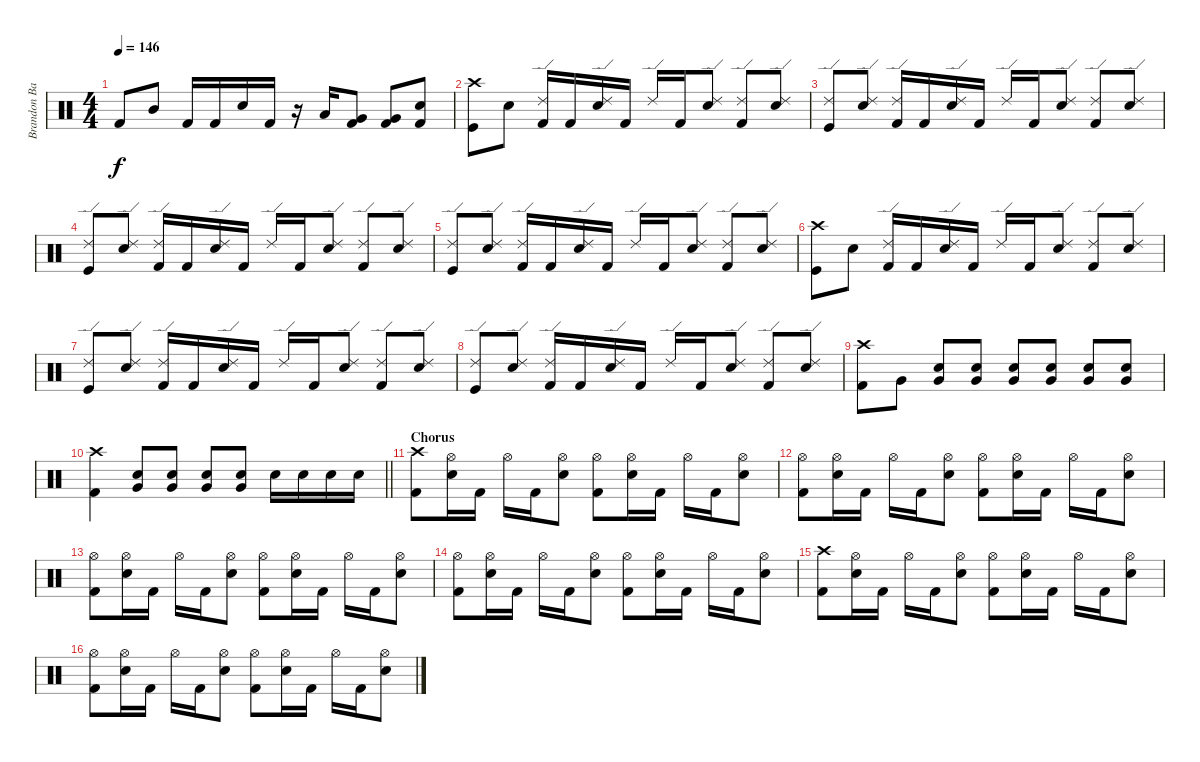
\track ("Brandon Barnes - Drums" "Brandon Ba") {instrument percussion}
\staff {score}
\articulation defaults
\ts (4 4)
\tempo 146
\clef neutral
\ks c "Kick (hit) 2".8{dy f} "Mid Tom (hit)".8 "Kick (hit) 2".16 "Kick (hit) 2".16 "Snare (hit) 2".16 "Kick (hit) 2".16
r.16 "Low Tom (hit)".16 ("Kick (hit) 2" "Very Low Tom (hit)").8 ("Kick (hit) 2" "Very Low Tom (hit)").8 ("Kick (hit) 2" "Snare (hit) 2").8 |
("Crash high (hit)" "Kick (hit)").8 "Snare (hit) 2".8 ("Kick (hit) 2" "Ride (edge) 2").16 "Kick (hit) 2".16 ("Snare (hit) 2" "Ride (edge) 2").16 "Kick (hit) 2".16 "Ride (edge) 2".16 "Kick (hit) 2".16 ("Snare (hit) 2" "Ride (edge) 2").8 ("Kick (hit) 2" "Ride (edge) 2").8 ("Snare (hit) 2" "Ride (edge) 2").8 |
("Ride (edge) 2" "Kick (hit)").8 ("Ride (edge) 2" "Snare (hit) 2").8 ("Kick (hit) 2" "Ride (edge) 2").16 "Kick (hit) 2".16 ("Snare (hit) 2" "Ride (edge) 2").16 "Kick (hit) 2".16 "Ride (edge) 2".16 "Kick (hit) 2".16 ("Snare (hit) 2" "Ride (edge) 2").8 ("Kick (hit) 2" "Ride (edge) 2").8 ("Snare (hit) 2" "Ride (edge) 2").8 |
("Ride (edge) 2" "Kick (hit)").8 ("Ride (edge) 2" "Snare (hit) 2").8 ("Kick (hit) 2" "Ride (edge) 2").16 "Kick (hit) 2".16 ("Snare (hit) 2" "Ride (edge) 2").16 "Kick (hit) 2".16 "Ride (edge) 2".16 "Kick (hit) 2".16 ("Snare (hit) 2" "Ride (edge) 2").8 ("Kick (hit) 2" "Ride (edge) 2").8 ("Snare (hit) 2" "Ride (edge) 2").8 |
("Ride (edge) 2" "Kick (hit)").8 ("Ride (edge) 2" "Snare (hit) 2").8 ("Kick (hit) 2" "Ride (edge) 2").16 "Kick (hit) 2".16 ("Snare (hit) 2" "Ride (edge) 2").16 "Kick (hit) 2".16 "Ride (edge) 2".16 "Kick (hit) 2".16 ("Snare (hit) 2" "Ride (edge) 2").8 ("Kick (hit) 2" "Ride (edge) 2").8 ("Snare (hit) 2" "Ride (edge) 2").8 |
("Crash high (hit)" "Kick (hit)").8 "Snare (hit) 2".8 ("Kick (hit) 2" "Ride (edge) 2").16 "Kick (hit) 2".16 ("Snare (hit) 2" "Ride (edge) 2").16 "Kick (hit) 2".16 "Ride (edge) 2".16 "Kick (hit) 2".16 ("Snare (hit) 2" "Ride (edge) 2").8 ("Kick (hit) 2" "Ride (edge) 2").8 ("Snare (hit) 2" "Ride (edge) 2").8 |
("Ride (edge) 2" "Kick (hit)").8 ("Ride (edge) 2" "Snare (hit) 2").8 ("Kick (hit) 2" "Ride (edge) 2").16 "Kick (hit) 2".16 ("Snare (hit) 2" "Ride (edge) 2").16 "Kick (hit) 2".16 "Ride (edge) 2".16 "Kick (hit) 2".16 ("Snare (hit) 2" "Ride (edge) 2").8 ("Kick (hit) 2" "Ride (edge) 2").8 ("Snare (hit) 2" "Ride (edge) 2").8 |
("Ride (edge) 2" "Kick (hit)").8 ("Ride (edge) 2" "Snare (hit) 2").8 ("Kick (hit) 2" "Ride (edge) 2").16 "Kick (hit) 2".16 ("Snare (hit) 2" "Ride (edge) 2").16 "Kick (hit) 2".16 "Ride (edge) 2".16 "Kick (hit) 2".16 ("Snare (hit) 2" "Ride (edge) 2").8 ("Kick (hit) 2" "Ride (edge) 2").8 ("Snare (hit) 2" "Ride (edge) 2").8 |
("Crash high (hit)" "Kick (hit) 2").8 "Very Low Tom (hit)".8 ("Very Low Tom (hit)" "Snare (hit) 2").8 ("Snare (hit) 2" "Very Low Tom (hit)").8 ("Snare (hit) 2" "Very Low Tom (hit)").8 ("Snare (hit) 2" "Very Low Tom (hit)").8 ("Snare (hit) 2" "Very Low Tom (hit)").8 ("Snare (hit) 2" "Very Low Tom (hit)").8 |
\barLineRight lightlight
("Crash high (hit)" "Kick (hit) 2").4 ("Very Low Tom (hit)" "Snare (hit) 2").8 ("Snare (hit) 2" "Very Low Tom (hit)").8 ("Snare (hit) 2" "Very Low Tom (hit)").8 ("Snare (hit) 2" "Very Low Tom (hit)").8 "Snare (hit) 2".16 "Snare (hit) 2".16 "Snare (hit) 2".16 "Snare (hit) 2".16 |
\section ("" "Chorus")
("Crash high (hit)" "Kick (hit) 2").8 ("Snare (hit) 2" "Hi-Hat (open)").16 "Kick (hit) 2".16 "Hi-Hat (open)".16 "Kick (hit) 2".16 ("Snare (hit) 2" "Hi-Hat (open)").8 ("Hi-Hat (open)" "Kick (hit) 2").8 ("Snare (hit) 2" "Hi-Hat (open)").16 "Kick (hit) 2".16 "Hi-Hat (open)".16 "Kick (hit) 2".16 ("Snare (hit) 2" "Hi-Hat (open)").8 |
("Hi-Hat (open)" "Kick (hit) 2").8 ("Snare (hit) 2" "Hi-Hat (open)").16 "Kick (hit) 2".16 "Hi-Hat (open)".16 "Kick (hit) 2".16 ("Snare (hit) 2" "Hi-Hat (open)").8 ("Hi-Hat (open)" "Kick (hit) 2").8 ("Snare (hit) 2" "Hi-Hat (open)").16 "Kick (hit) 2".16 "Hi-Hat (open)".16 "Kick (hit) 2".16 ("Snare (hit) 2" "Hi-Hat (open)").8 |
("Hi-Hat (open)" "Kick (hit) 2").8 ("Snare (hit) 2" "Hi-Hat (open)").16 "Kick (hit) 2".16 "Hi-Hat (open)".16 "Kick (hit) 2".16 ("Snare (hit) 2" "Hi-Hat (open)").8 ("Hi-Hat (open)" "Kick (hit) 2").8 ("Snare (hit) 2" "Hi-Hat (open)").16 "Kick (hit) 2".16 "Hi-Hat (open)".16 "Kick (hit) 2".16 ("Snare (hit) 2" "Hi-Hat (open)").8 |
("Hi-Hat (open)" "Kick (hit) 2").8 ("Snare (hit) 2" "Hi-Hat (open)").16 "Kick (hit) 2".16 "Hi-Hat (open)".16 "Kick (hit) 2".16 ("Snare (hit) 2" "Hi-Hat (open)").8 ("Hi-Hat (open)" "Kick (hit) 2").8 ("Snare (hit) 2" "Hi-Hat (open)").16 "Kick (hit) 2".16 "Hi-Hat (open)".16 "Kick (hit) 2".16 ("Snare (hit) 2" "Hi-Hat (open)").8 |
("Crash high (hit)" "Kick (hit) 2").8 ("Snare (hit) 2" "Hi-Hat (open)").16 "Kick (hit) 2".16 "Hi-Hat (open)".16 "Kick (hit) 2".16 ("Snare (hit) 2" "Hi-Hat (open)").8 ("Hi-Hat (open)" "Kick (hit) 2").8 ("Snare (hit) 2" "Hi-Hat (open)").16 "Kick (hit) 2".16 "Hi-Hat (open)".16 "Kick (hit) 2".16 ("Snare (hit) 2" "Hi-Hat (open)").8 |
("Hi-Hat (open)" "Kick (hit) 2").8 ("Snare (hit) 2" "Hi-Hat (open)").16 "Kick (hit) 2".16 "Hi-Hat (open)".16 "Kick (hit) 2".16 ("Snare (hit) 2" "Hi-Hat (open)").8 ("Hi-Hat (open)" "Kick (hit) 2").8 ("Snare (hit) 2" "Hi-Hat (open)").16 "Kick (hit) 2".16 "Hi-Hat (open)".16 "Kick (hit) 2".16 ("Snare (hit) 2" "Hi-Hat (open)").8
